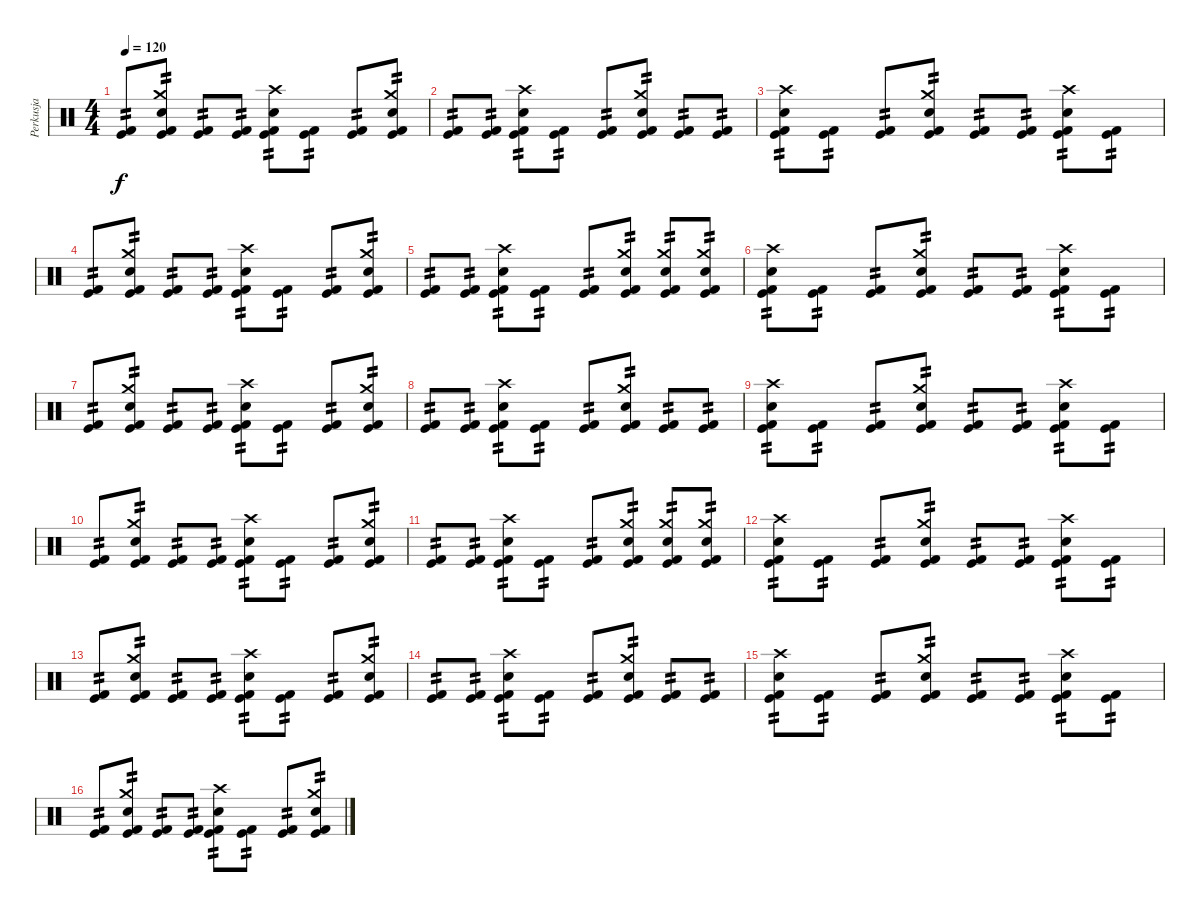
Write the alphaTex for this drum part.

\track ("Perkusja" "Perkusja") {instrument percussion}
\staff {score}
\articulation defaults
\ts (4 4)
\tempo 120
\clef neutral
\ks c
("Kick (hit) 2" "Kick (hit)").8{tp 2 dy f} ("Kick (hit) 2" "Crash medium (hit)" "Kick (hit)" "Snare (hit) 2").8{tp 2} ("Kick (hit) 2" "Kick (hit)").8{tp 2} ("Kick (hit) 2" "Kick (hit)").8{tp 2} ("Kick (hit) 2" "Crash high (hit)" "Kick (hit)" "Snare (hit) 2").8{tp 2} ("Kick (hit) 2" "Kick (hit)").8{tp 2} ("Kick (hit) 2" "Kick (hit)").8{tp 2} ("Kick (hit) 2" "Crash medium (hit)" "Kick (hit)" "Snare (hit) 2").8{tp 2} |
("Kick (hit) 2" "Kick (hit)").8{tp 2} ("Kick (hit) 2" "Kick (hit)").8{tp 2} ("Kick (hit) 2" "Crash high (hit)" "Kick (hit)" "Snare (hit) 2").8{tp 2} ("Kick (hit) 2" "Kick (hit)").8{tp 2} ("Kick (hit) 2" "Kick (hit)").8{tp 2} ("Kick (hit) 2" "Crash medium (hit)" "Kick (hit)" "Snare (hit) 2").8{tp 2} ("Kick (hit) 2" "Kick (hit)").8{tp 2} ("Kick (hit) 2" "Kick (hit)").8{tp 2} |
("Kick (hit) 2" "Crash high (hit)" "Kick (hit)" "Snare (hit) 2").8{tp 2} ("Kick (hit) 2" "Kick (hit)").8{tp 2} ("Kick (hit) 2" "Kick (hit)").8{tp 2} ("Kick (hit) 2" "Crash medium (hit)" "Kick (hit)" "Snare (hit) 2").8{tp 2} ("Kick (hit) 2" "Kick (hit)").8{tp 2} ("Kick (hit) 2" "Kick (hit)").8{tp 2} ("Kick (hit) 2" "Crash high (hit)" "Kick (hit)" "Snare (hit) 2").8{tp 2} ("Kick (hit) 2" "Kick (hit)").8{tp 2} |
("Kick (hit) 2" "Kick (hit)").8{tp 2} ("Kick (hit) 2" "Crash medium (hit)" "Kick (hit)" "Snare (hit) 2").8{tp 2} ("Kick (hit) 2" "Kick (hit)").8{tp 2} ("Kick (hit) 2" "Kick (hit)").8{tp 2} ("Kick (hit) 2" "Crash high (hit)" "Kick (hit)" "Snare (hit) 2").8{tp 2} ("Kick (hit) 2" "Kick (hit)").8{tp 2} ("Kick (hit) 2" "Kick (hit)").8{tp 2} ("Kick (hit) 2" "Crash medium (hit)" "Kick (hit)" "Snare (hit) 2").8{tp 2} |
("Kick (hit) 2" "Kick (hit)").8{tp 2} ("Kick (hit) 2" "Kick (hit)").8{tp 2} ("Kick (hit) 2" "Crash high (hit)" "Kick (hit)" "Snare (hit) 2").8{tp 2} ("Kick (hit) 2" "Kick (hit)").8{tp 2} ("Kick (hit) 2" "Kick (hit)").8{tp 2} ("Kick (hit) 2" "Crash medium (hit)" "Kick (hit)" "Snare (hit) 2").8{tp 2} ("Kick (hit) 2" "Crash medium (hit)" "Kick (hit)" "Snare (hit) 2").8{tp 2} ("Kick (hit) 2" "Crash medium (hit)" "Kick (hit)" "Snare (hit) 2").8{tp 2} |
("Kick (hit) 2" "Crash high (hit)" "Kick (hit)" "Snare (hit) 2").8{tp 2} ("Kick (hit) 2" "Kick (hit)").8{tp 2} ("Kick (hit) 2" "Kick (hit)").8{tp 2} ("Kick (hit) 2" "Crash medium (hit)" "Kick (hit)" "Snare (hit) 2").8{tp 2} ("Kick (hit) 2" "Kick (hit)").8{tp 2} ("Kick (hit) 2" "Kick (hit)").8{tp 2} ("Kick (hit) 2" "Crash high (hit)" "Kick (hit)" "Snare (hit) 2").8{tp 2} ("Kick (hit) 2" "Kick (hit)").8{tp 2} |
("Kick (hit) 2" "Kick (hit)").8{tp 2} ("Kick (hit) 2" "Crash medium (hit)" "Kick (hit)" "Snare (hit) 2").8{tp 2} ("Kick (hit) 2" "Kick (hit)").8{tp 2} ("Kick (hit) 2" "Kick (hit)").8{tp 2} ("Kick (hit) 2" "Crash high (hit)" "Kick (hit)" "Snare (hit) 2").8{tp 2} ("Kick (hit) 2" "Kick (hit)").8{tp 2} ("Kick (hit) 2" "Kick (hit)").8{tp 2} ("Kick (hit) 2" "Crash medium (hit)" "Kick (hit)" "Snare (hit) 2").8{tp 2} |
("Kick (hit) 2" "Kick (hit)").8{tp 2} ("Kick (hit) 2" "Kick (hit)").8{tp 2} ("Kick (hit) 2" "Crash high (hit)" "Kick (hit)" "Snare (hit) 2").8{tp 2} ("Kick (hit) 2" "Kick (hit)").8{tp 2} ("Kick (hit) 2" "Kick (hit)").8{tp 2} ("Kick (hit) 2" "Crash medium (hit)" "Kick (hit)" "Snare (hit) 2").8{tp 2} ("Kick (hit) 2" "Kick (hit)").8{tp 2} ("Kick (hit) 2" "Kick (hit)").8{tp 2} |
("Kick (hit) 2" "Crash high (hit)" "Kick (hit)" "Snare (hit) 2").8{tp 2} ("Kick (hit) 2" "Kick (hit)").8{tp 2} ("Kick (hit) 2" "Kick (hit)").8{tp 2} ("Kick (hit) 2" "Crash medium (hit)" "Kick (hit)" "Snare (hit) 2").8{tp 2} ("Kick (hit) 2" "Kick (hit)").8{tp 2} ("Kick (hit) 2" "Kick (hit)").8{tp 2} ("Kick (hit) 2" "Crash high (hit)" "Kick (hit)" "Snare (hit) 2").8{tp 2} ("Kick (hit) 2" "Kick (hit)").8{tp 2} |
("Kick (hit) 2" "Kick (hit)").8{tp 2} ("Kick (hit) 2" "Crash medium (hit)" "Kick (hit)" "Snare (hit) 2").8{tp 2} ("Kick (hit) 2" "Kick (hit)").8{tp 2} ("Kick (hit) 2" "Kick (hit)").8{tp 2} ("Kick (hit) 2" "Crash high (hit)" "Kick (hit)" "Snare (hit) 2").8{tp 2} ("Kick (hit) 2" "Kick (hit)").8{tp 2} ("Kick (hit) 2" "Kick (hit)").8{tp 2} ("Kick (hit) 2" "Crash medium (hit)" "Kick (hit)" "Snare (hit) 2").8{tp 2} |
("Kick (hit) 2" "Kick (hit)").8{tp 2} ("Kick (hit) 2" "Kick (hit)").8{tp 2} ("Kick (hit) 2" "Crash high (hit)" "Kick (hit)" "Snare (hit) 2").8{tp 2} ("Kick (hit) 2" "Kick (hit)").8{tp 2} ("Kick (hit) 2" "Kick (hit)").8{tp 2} ("Kick (hit) 2" "Crash medium (hit)" "Kick (hit)" "Snare (hit) 2").8{tp 2} ("Kick (hit) 2" "Crash medium (hit)" "Kick (hit)" "Snare (hit) 2").8{tp 2} ("Kick (hit) 2" "Crash medium (hit)" "Kick (hit)" "Snare (hit) 2").8{tp 2} |
("Kick (hit) 2" "Crash high (hit)" "Kick (hit)" "Snare (hit) 2").8{tp 2} ("Kick (hit) 2" "Kick (hit)").8{tp 2} ("Kick (hit) 2" "Kick (hit)").8{tp 2} ("Kick (hit) 2" "Crash medium (hit)" "Kick (hit)" "Snare (hit) 2").8{tp 2} ("Kick (hit) 2" "Kick (hit)").8{tp 2} ("Kick (hit) 2" "Kick (hit)").8{tp 2} ("Kick (hit) 2" "Crash high (hit)" "Kick (hit)" "Snare (hit) 2").8{tp 2} ("Kick (hit) 2" "Kick (hit)").8{tp 2} |
("Kick (hit) 2" "Kick (hit)").8{tp 2} ("Kick (hit) 2" "Crash medium (hit)" "Kick (hit)" "Snare (hit) 2").8{tp 2} ("Kick (hit) 2" "Kick (hit)").8{tp 2} ("Kick (hit) 2" "Kick (hit)").8{tp 2} ("Kick (hit) 2" "Crash high (hit)" "Kick (hit)" "Snare (hit) 2").8{tp 2} ("Kick (hit) 2" "Kick (hit)").8{tp 2} ("Kick (hit) 2" "Kick (hit)").8{tp 2} ("Kick (hit) 2" "Crash medium (hit)" "Kick (hit)" "Snare (hit) 2").8{tp 2} |
("Kick (hit) 2" "Kick (hit)").8{tp 2} ("Kick (hit) 2" "Kick (hit)").8{tp 2} ("Kick (hit) 2" "Crash high (hit)" "Kick (hit)" "Snare (hit) 2").8{tp 2} ("Kick (hit) 2" "Kick (hit)").8{tp 2} ("Kick (hit) 2" "Kick (hit)").8{tp 2} ("Kick (hit) 2" "Crash medium (hit)" "Kick (hit)" "Snare (hit) 2").8{tp 2} ("Kick (hit) 2" "Kick (hit)").8{tp 2} ("Kick (hit) 2" "Kick (hit)").8{tp 2} |
("Kick (hit) 2" "Crash high (hit)" "Kick (hit)" "Snare (hit) 2").8{tp 2} ("Kick (hit) 2" "Kick (hit)").8{tp 2} ("Kick (hit) 2" "Kick (hit)").8{tp 2} ("Kick (hit) 2" "Crash medium (hit)" "Kick (hit)" "Snare (hit) 2").8{tp 2} ("Kick (hit) 2" "Kick (hit)").8{tp 2} ("Kick (hit) 2" "Kick (hit)").8{tp 2} ("Kick (hit) 2" "Crash high (hit)" "Kick (hit)" "Snare (hit) 2").8{tp 2} ("Kick (hit) 2" "Kick (hit)").8{tp 2} |
("Kick (hit) 2" "Kick (hit)").8{tp 2} ("Kick (hit) 2" "Crash medium (hit)" "Kick (hit)" "Snare (hit) 2").8{tp 2} ("Kick (hit) 2" "Kick (hit)").8{tp 2} ("Kick (hit) 2" "Kick (hit)").8{tp 2} ("Kick (hit) 2" "Crash high (hit)" "Kick (hit)" "Snare (hit) 2").8{tp 2} ("Kick (hit) 2" "Kick (hit)").8{tp 2} ("Kick (hit) 2" "Kick (hit)").8{tp 2} ("Kick (hit) 2" "Crash medium (hit)" "Kick (hit)" "Snare (hit) 2").8{tp 2}
